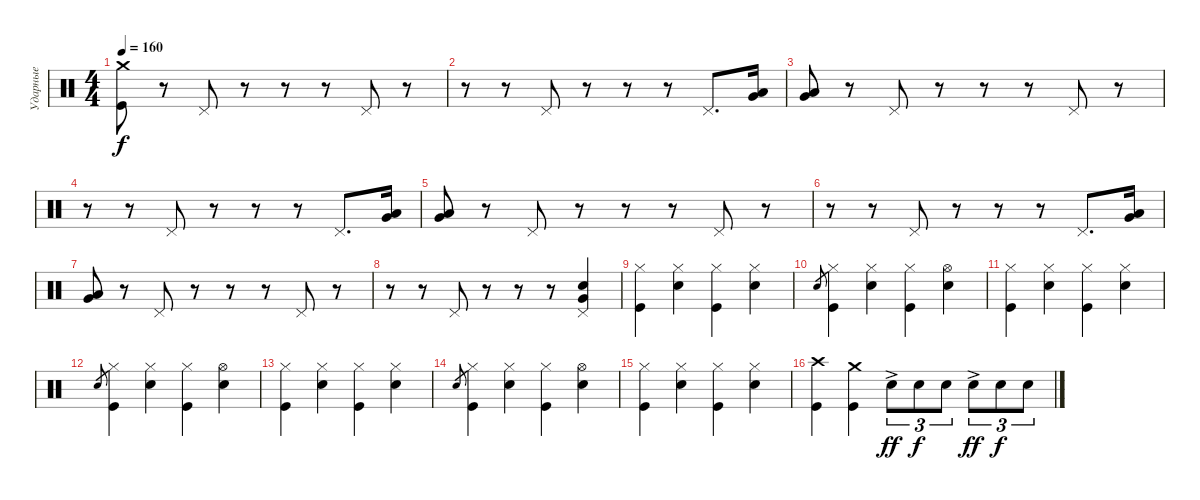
\track ("Ударные" "Ударные") {instrument percussion}
\staff {score}
\articulation defaults
\ts (4 4)
\tempo 160
\clef neutral
\ks c
("Kick (hit)" "Crash medium (hit)").8{dy f} r.8 "Pedal Hi-Hat (hit)".8 r.8 r.8 r.8 "Pedal Hi-Hat (hit)".8 r.8 |
r.8 r.8 "Pedal Hi-Hat (hit)".8 r.8 r.8 r.8 "Pedal Hi-Hat (hit)".8{d} ("Very Low Tom (hit)" "Low Floor Tom (hit)").16 |
("Very Low Tom (hit)" "Low Floor Tom (hit)").8 r.8 "Pedal Hi-Hat (hit)".8 r.8 r.8 r.8 "Pedal Hi-Hat (hit)".8 r.8 |
r.8 r.8 "Pedal Hi-Hat (hit)".8 r.8 r.8 r.8 "Pedal Hi-Hat (hit)".8{d} ("Very Low Tom (hit)" "Low Floor Tom (hit)").16 |
("Very Low Tom (hit)" "Low Floor Tom (hit)").8 r.8 "Pedal Hi-Hat (hit)".8 r.8 r.8 r.8 "Pedal Hi-Hat (hit)".8 r.8 |
r.8 r.8 "Pedal Hi-Hat (hit)".8 r.8 r.8 r.8 "Pedal Hi-Hat (hit)".8{d} ("Very Low Tom (hit)" "Low Floor Tom (hit)").16 |
("Very Low Tom (hit)" "Low Floor Tom (hit)").8 r.8 "Pedal Hi-Hat (hit)".8 r.8 r.8 r.8 "Pedal Hi-Hat (hit)".8 r.8 |
r.8 r.8 "Pedal Hi-Hat (hit)".8 r.8 r.8 r.8 ("Electric Snare (hit)" "Pedal Hi-Hat (hit)" "Very Low Tom (hit)").4 |
("Kick (hit)" "Hi-Hat (closed)").4 ("Electric Snare (hit)" "Hi-Hat (closed)").4 ("Kick (hit)" "Hi-Hat (closed)").4 ("Electric Snare (hit)" "Hi-Hat (closed)").4 |
"Electric Snare (hit)".8{gr} ("Kick (hit)" "Hi-Hat (closed)").4 ("Electric Snare (hit)" "Hi-Hat (closed)").4 ("Kick (hit)" "Hi-Hat (closed)").4 ("Electric Snare (hit)" "Hi-Hat (open)").4 |
("Kick (hit)" "Hi-Hat (closed)").4 ("Electric Snare (hit)" "Hi-Hat (closed)").4 ("Kick (hit)" "Hi-Hat (closed)").4 ("Electric Snare (hit)" "Hi-Hat (closed)").4 |
"Electric Snare (hit)".8{gr} ("Kick (hit)" "Hi-Hat (closed)").4 ("Electric Snare (hit)" "Hi-Hat (closed)").4 ("Kick (hit)" "Hi-Hat (closed)").4 ("Electric Snare (hit)" "Hi-Hat (open)").4 |
("Kick (hit)" "Hi-Hat (closed)").4 ("Electric Snare (hit)" "Hi-Hat (closed)").4 ("Kick (hit)" "Hi-Hat (closed)").4 ("Electric Snare (hit)" "Hi-Hat (closed)").4 |
"Electric Snare (hit)".8{gr} ("Kick (hit)" "Hi-Hat (closed)").4 ("Electric Snare (hit)" "Hi-Hat (closed)").4 ("Kick (hit)" "Hi-Hat (closed)").4 ("Electric Snare (hit)" "Hi-Hat (open)").4 |
("Kick (hit)" "Hi-Hat (closed)").4 ("Electric Snare (hit)" "Hi-Hat (closed)").4 ("Kick (hit)" "Hi-Hat (closed)").4 ("Electric Snare (hit)" "Hi-Hat (closed)").4 |
("Kick (hit)" "Crash high (hit)").4 ("Kick (hit)" "Crash medium (hit)").4 "Electric Snare (hit)"{ac}.8{tu (3 2) dy ff} "Electric Snare (hit)".8{tu (3 2) dy f} "Electric Snare (hit)".8{tu (3 2)} "Electric Snare (hit)"{ac}.8{tu (3 2) dy ff} "Electric Snare (hit)".8{tu (3 2) dy f} "Electric Snare (hit)".8{tu (3 2)}
